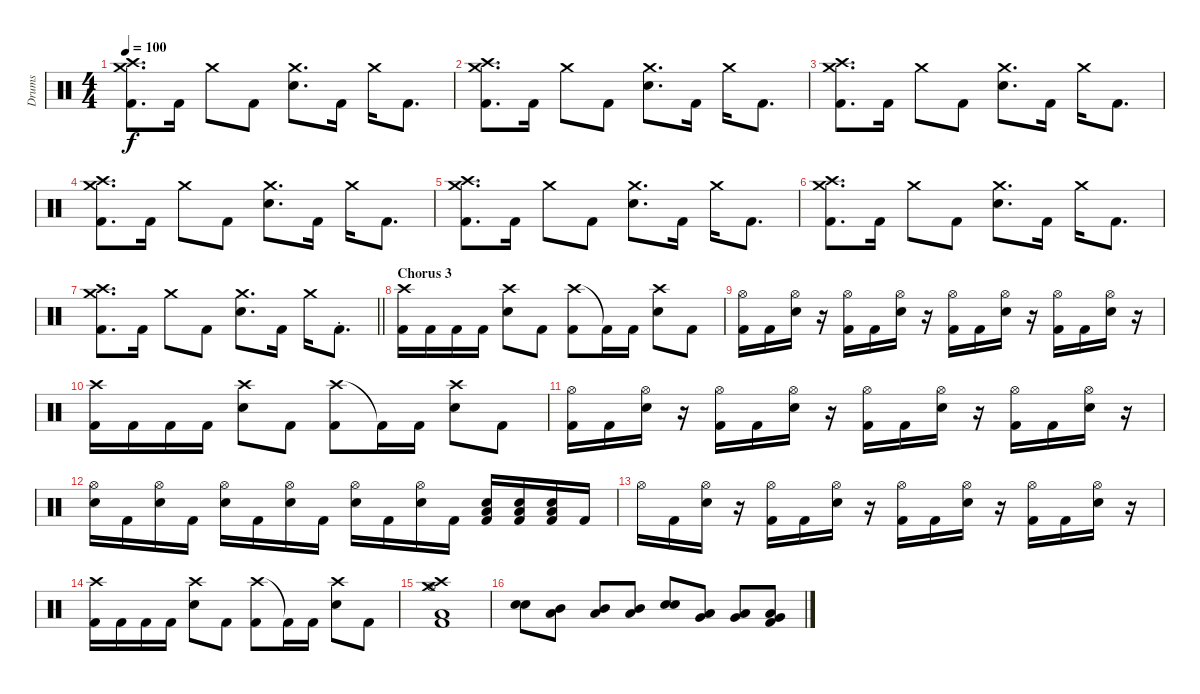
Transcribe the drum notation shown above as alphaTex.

\track ("Drums" "Drums") {instrument percussion}
\staff {score}
\articulation defaults
\ts (4 4)
\tempo 100
\clef neutral
\ks c
("Crash high (hit)" "Kick (hit) 2" "Crash medium (hit)").8{d dy f} "Kick (hit) 2".16 "Crash medium (hit)".8 "Kick (hit) 2".8 ("Snare (hit) 2" "Crash medium (hit)").8{d} "Kick (hit) 2".16 "Crash medium (hit)".16 "Kick (hit) 2".8{d} |
("Crash high (hit)" "Kick (hit) 2" "Crash medium (hit)").8{d} "Kick (hit) 2".16 "Crash medium (hit)".8 "Kick (hit) 2".8 ("Snare (hit) 2" "Crash medium (hit)").8{d} "Kick (hit) 2".16 "Crash medium (hit)".16 "Kick (hit) 2".8{d} |
("Crash high (hit)" "Kick (hit) 2" "Crash medium (hit)").8{d} "Kick (hit) 2".16 "Crash medium (hit)".8 "Kick (hit) 2".8 ("Snare (hit) 2" "Crash medium (hit)").8{d} "Kick (hit) 2".16 "Crash medium (hit)".16 "Kick (hit) 2".8{d} |
("Crash high (hit)" "Kick (hit) 2" "Crash medium (hit)").8{d} "Kick (hit) 2".16 "Crash medium (hit)".8 "Kick (hit) 2".8 ("Snare (hit) 2" "Crash medium (hit)").8{d} "Kick (hit) 2".16 "Crash medium (hit)".16 "Kick (hit) 2".8{d} |
("Crash high (hit)" "Kick (hit) 2" "Crash medium (hit)").8{d} "Kick (hit) 2".16 "Crash medium (hit)".8 "Kick (hit) 2".8 ("Snare (hit) 2" "Crash medium (hit)").8{d} "Kick (hit) 2".16 "Crash medium (hit)".16 "Kick (hit) 2".8{d} |
("Crash high (hit)" "Kick (hit) 2" "Crash medium (hit)").8{d} "Kick (hit) 2".16 "Crash medium (hit)".8 "Kick (hit) 2".8 ("Snare (hit) 2" "Crash medium (hit)").8{d} "Kick (hit) 2".16 "Crash medium (hit)".16 "Kick (hit) 2".8{d} |
\barLineRight lightlight
("Crash high (hit)" "Kick (hit) 2" "Crash medium (hit)").8{d} "Kick (hit) 2".16 "Crash medium (hit)".8 "Kick (hit) 2".8 ("Snare (hit) 2" "Crash medium (hit)").8{d} "Kick (hit) 2".16 "Crash medium (hit)".16 "Kick (hit) 2"{st}.8{d} |
\section ("" "Chorus 3")
("Crash high (hit)" "Kick (hit) 2").16 "Kick (hit) 2".16 "Kick (hit) 2".16 "Kick (hit) 2".16 ("Crash high (hit)" "Snare (hit) 2").8 "Kick (hit) 2".8 ("Crash high (hit)" "Kick (hit) 2").8 "Kick (hit) 2"{t}.16 "Kick (hit) 2".16 ("Crash high (hit)" "Snare (hit) 2").8 "Kick (hit) 2".8 |
("Hi-Hat (open)" "Kick (hit) 2").16 "Kick (hit) 2".16 ("Hi-Hat (open)" "Snare (hit) 2").16 r.16 ("Hi-Hat (open)" "Kick (hit) 2").16 "Kick (hit) 2".16 ("Hi-Hat (open)" "Snare (hit) 2").16 r.16 ("Hi-Hat (open)" "Kick (hit) 2").16 "Kick (hit) 2".16 ("Hi-Hat (open)" "Snare (hit) 2").16 r.16 ("Hi-Hat (open)" "Kick (hit) 2").16 "Kick (hit) 2".16 ("Hi-Hat (open)" "Snare (hit) 2").16 r.16 |
("Crash high (hit)" "Kick (hit) 2").16 "Kick (hit) 2".16 "Kick (hit) 2".16 "Kick (hit) 2".16 ("Crash high (hit)" "Snare (hit) 2").8 "Kick (hit) 2".8 ("Crash high (hit)" "Kick (hit) 2").8 "Kick (hit) 2"{t}.16 "Kick (hit) 2".16 ("Crash high (hit)" "Snare (hit) 2").8 "Kick (hit) 2".8 |
("Hi-Hat (open)" "Kick (hit) 2").16 "Kick (hit) 2".16 ("Hi-Hat (open)" "Snare (hit) 2").16 r.16 ("Hi-Hat (open)" "Kick (hit) 2").16 "Kick (hit) 2".16 ("Hi-Hat (open)" "Snare (hit) 2").16 r.16 ("Hi-Hat (open)" "Kick (hit) 2").16 "Kick (hit) 2".16 ("Hi-Hat (open)" "Snare (hit) 2").16 r.16 ("Hi-Hat (open)" "Kick (hit) 2").16 "Kick (hit) 2".16 ("Hi-Hat (open)" "Snare (hit) 2").16 r.16 |
("Hi-Hat (open)" "Snare (hit) 2").16 "Kick (hit) 2".16 ("Hi-Hat (open)" "Snare (hit) 2").16 "Kick (hit) 2".16 ("Hi-Hat (open)" "Snare (hit) 2").16 "Kick (hit) 2".16 ("Hi-Hat (open)" "Snare (hit) 2").16 "Kick (hit) 2".16 ("Hi-Hat (open)" "Snare (hit) 2").16 "Kick (hit) 2".16 ("Hi-Hat (open)" "Snare (hit) 2").16 "Kick (hit) 2".16 ("Low Floor Tom (hit)" "Snare (hit) 2" "Kick (hit) 2").16 ("Low Floor Tom (hit)" "Snare (hit) 2" "Kick (hit) 2").16 ("Low Floor Tom (hit)" "Snare (hit) 2" "Kick (hit) 2").16 "Kick (hit) 2".16 |
"Hi-Hat (open)".16 "Kick (hit) 2".16 ("Hi-Hat (open)" "Snare (hit) 2").16 r.16 ("Hi-Hat (open)" "Kick (hit) 2").16 "Kick (hit) 2".16 ("Hi-Hat (open)" "Snare (hit) 2").16 r.16 ("Hi-Hat (open)" "Kick (hit) 2").16 "Kick (hit) 2".16 ("Hi-Hat (open)" "Snare (hit) 2").16 r.16 ("Hi-Hat (open)" "Kick (hit) 2").16 "Kick (hit) 2".16 ("Hi-Hat (open)" "Snare (hit) 2").16 r.16 |
("Crash high (hit)" "Kick (hit) 2").16 "Kick (hit) 2".16 "Kick (hit) 2".16 "Kick (hit) 2".16 ("Crash high (hit)" "Snare (hit) 2").8 "Kick (hit) 2".8 ("Crash high (hit)" "Kick (hit) 2").8 "Kick (hit) 2"{t}.16 "Kick (hit) 2".16 ("Crash high (hit)" "Snare (hit) 2").8 "Kick (hit) 2".8 |
("Kick (hit) 2" "Low Floor Tom (hit)" "Hi-Hat (open)" "Crash high (hit)" "Crash medium (hit)").1 |
("Snare (hit) 2" "Snare (hit) 2").8 ("Mid Tom (hit)" "Low Tom (hit)").8 ("Mid Tom (hit)" "Low Tom (hit)").8 ("Mid Tom (hit)" "Low Tom (hit)").8 ("Snare (hit) 2" "Snare (hit) 2").8 ("Low Floor Tom (hit)" "Very Low Tom (hit)").8 ("Very Low Tom (hit)" "Low Floor Tom (hit)").8 ("Kick (hit) 2" "Very Low Tom (hit)" "Low Floor Tom (hit)").8
